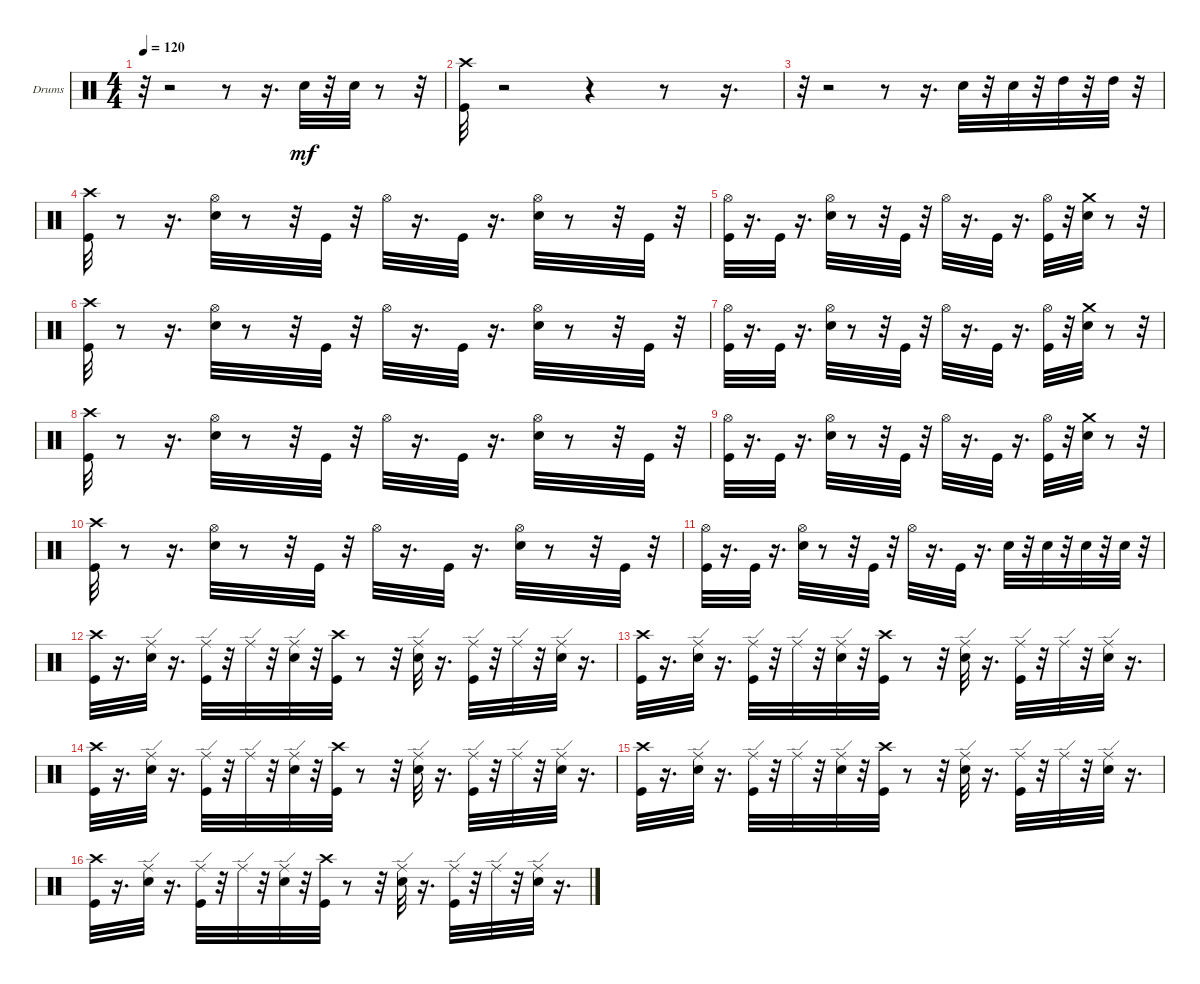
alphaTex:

\bracketExtendMode groupsimilarinstruments
\firstSystemTrackNameOrientation horizontal
\otherSystemsTrackNameOrientation horizontal
\track ("" "Drums") {instrument percussion}
\staff {score}
\articulation defaults
\ts (4 4)
\tempo 120
\clef neutral
\ks c
r.32{dy mf} r.2 r.8 r.16{d} "Snare (hit) 2".32 r.32 "Snare (hit) 2".32 r.8 r.32 |
("Crash high (hit)" "Kick (hit)").32 r.2 r.4 r.8 r.16{d} |
r.32 r.2 r.8 r.16{d} "Snare (hit) 2".32 r.32 "Snare (hit) 2".32 r.32 "High Tom (hit)".32 r.32 "High Tom (hit)".32 r.32 |
("Crash high (hit)" "Kick (hit)").32 r.8 r.16{d} ("Hi-Hat (open)" "Snare (hit) 2").32 r.8 r.32 "Kick (hit)".32 r.32 "Hi-Hat (open)".32 r.16{d} "Kick (hit)".32 r.16{d} ("Hi-Hat (open)" "Snare (hit) 2").32 r.8 r.32 "Kick (hit)".32 r.32 |
("Hi-Hat (open)" "Kick (hit)").32 r.16{d} "Kick (hit)".32 r.16{d} ("Hi-Hat (open)" "Snare (hit) 2").32 r.8 r.32 "Kick (hit)".32 r.32 "Hi-Hat (open)".32 r.16{d} "Kick (hit)".32 r.16{d} ("Hi-Hat (open)" "Kick (hit)").32 r.32 ("Snare (hit) 2" "Crash medium (hit)").32 r.8 r.32 |
("Crash high (hit)" "Kick (hit)").32 r.8 r.16{d} ("Hi-Hat (open)" "Snare (hit) 2").32 r.8 r.32 "Kick (hit)".32 r.32 "Hi-Hat (open)".32 r.16{d} "Kick (hit)".32 r.16{d} ("Hi-Hat (open)" "Snare (hit) 2").32 r.8 r.32 "Kick (hit)".32 r.32 |
("Hi-Hat (open)" "Kick (hit)").32 r.16{d} "Kick (hit)".32 r.16{d} ("Hi-Hat (open)" "Snare (hit) 2").32 r.8 r.32 "Kick (hit)".32 r.32 "Hi-Hat (open)".32 r.16{d} "Kick (hit)".32 r.16{d} ("Hi-Hat (open)" "Kick (hit)").32 r.32 ("Snare (hit) 2" "Crash medium (hit)").32 r.8 r.32 |
("Crash high (hit)" "Kick (hit)").32 r.8 r.16{d} ("Hi-Hat (open)" "Snare (hit) 2").32 r.8 r.32 "Kick (hit)".32 r.32 "Hi-Hat (open)".32 r.16{d} "Kick (hit)".32 r.16{d} ("Hi-Hat (open)" "Snare (hit) 2").32 r.8 r.32 "Kick (hit)".32 r.32 |
("Hi-Hat (open)" "Kick (hit)").32 r.16{d} "Kick (hit)".32 r.16{d} ("Hi-Hat (open)" "Snare (hit) 2").32 r.8 r.32 "Kick (hit)".32 r.32 "Hi-Hat (open)".32 r.16{d} "Kick (hit)".32 r.16{d} ("Hi-Hat (open)" "Kick (hit)").32 r.32 ("Snare (hit) 2" "Crash medium (hit)").32 r.8 r.32 |
("Crash high (hit)" "Kick (hit)").32 r.8 r.16{d} ("Hi-Hat (open)" "Snare (hit) 2").32 r.8 r.32 "Kick (hit)".32 r.32 "Hi-Hat (open)".32 r.16{d} "Kick (hit)".32 r.16{d} ("Hi-Hat (open)" "Snare (hit) 2").32 r.8 r.32 "Kick (hit)".32 r.32 |
("Hi-Hat (open)" "Kick (hit)").32 r.16{d} "Kick (hit)".32 r.16{d} ("Hi-Hat (open)" "Snare (hit) 2").32 r.8 r.32 "Kick (hit)".32 r.32 "Hi-Hat (open)".32 r.16{d} "Kick (hit)".32 r.16{d} "Snare (hit) 2".32 r.32 "Snare (hit) 2".32 r.32 "Snare (hit) 2".32 r.32 "Snare (hit) 2".32 r.32 |
("Crash high (hit)" "Kick (hit)").32 r.16{d} ("Snare (hit) 2" "Ride (edge)").32 r.16{d} ("Kick (hit)" "Ride (edge)").32 r.32 "Ride (edge)".32 r.32 ("Ride (edge)" "Snare (hit) 2").32 r.32 ("Crash high (hit)" "Kick (hit)").32 r.8 r.32 ("Snare (hit) 2" "Ride (edge)").32 r.16{d} ("Kick (hit)" "Ride (edge)").32 r.32 "Ride (edge)".32 r.32 ("Snare (hit) 2" "Ride (edge)").32 r.16{d} |
("Crash high (hit)" "Kick (hit)").32 r.16{d} ("Snare (hit) 2" "Ride (edge)").32 r.16{d} ("Kick (hit)" "Ride (edge)").32 r.32 "Ride (edge)".32 r.32 ("Ride (edge)" "Snare (hit) 2").32 r.32 ("Crash high (hit)" "Kick (hit)").32 r.8 r.32 ("Snare (hit) 2" "Ride (edge)").32 r.16{d} ("Kick (hit)" "Ride (edge)").32 r.32 "Ride (edge)".32 r.32 ("Snare (hit) 2" "Ride (edge)").32 r.16{d} |
("Crash high (hit)" "Kick (hit)").32 r.16{d} ("Snare (hit) 2" "Ride (edge)").32 r.16{d} ("Kick (hit)" "Ride (edge)").32 r.32 "Ride (edge)".32 r.32 ("Ride (edge)" "Snare (hit) 2").32 r.32 ("Crash high (hit)" "Kick (hit)").32 r.8 r.32 ("Snare (hit) 2" "Ride (edge)").32 r.16{d} ("Kick (hit)" "Ride (edge)").32 r.32 "Ride (edge)".32 r.32 ("Snare (hit) 2" "Ride (edge)").32 r.16{d} |
("Crash high (hit)" "Kick (hit)").32 r.16{d} ("Snare (hit) 2" "Ride (edge)").32 r.16{d} ("Kick (hit)" "Ride (edge)").32 r.32 "Ride (edge)".32 r.32 ("Ride (edge)" "Snare (hit) 2").32 r.32 ("Crash high (hit)" "Kick (hit)").32 r.8 r.32 ("Snare (hit) 2" "Ride (edge)").32 r.16{d} ("Kick (hit)" "Ride (edge)").32 r.32 "Ride (edge)".32 r.32 ("Snare (hit) 2" "Ride (edge)").32 r.16{d} |
("Crash high (hit)" "Kick (hit)").32 r.16{d} ("Snare (hit) 2" "Ride (edge)").32 r.16{d} ("Kick (hit)" "Ride (edge)").32 r.32 "Ride (edge)".32 r.32 ("Ride (edge)" "Snare (hit) 2").32 r.32 ("Crash high (hit)" "Kick (hit)").32 r.8 r.32 ("Snare (hit) 2" "Ride (edge)").32 r.16{d} ("Kick (hit)" "Ride (edge)").32 r.32 "Ride (edge)".32 r.32 ("Snare (hit) 2" "Ride (edge)").32 r.16{d}
